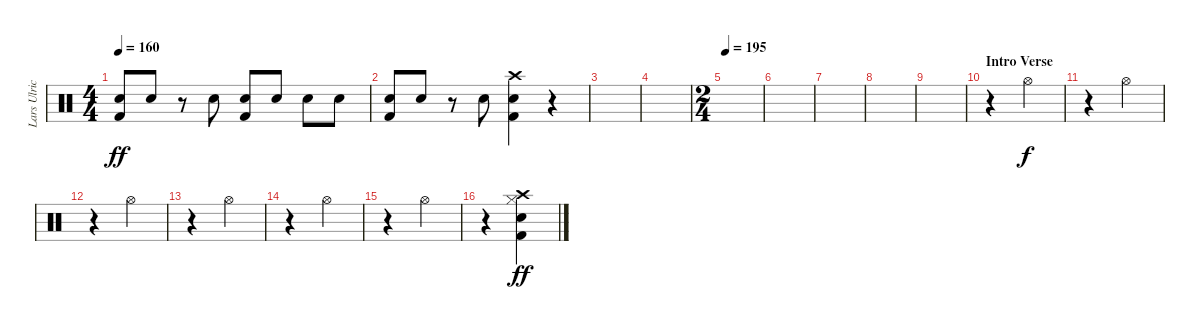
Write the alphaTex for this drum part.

\track ("Lars Ulrich" "Lars Ulric") {instrument percussion}
\staff {score}
\articulation defaults
\ts (4 4)
\tempo 154
\tempo 160
\clef neutral
\ks c
("Kick (hit) 2" "Snare (hit) 2").8{dy ff} "Snare (hit) 2".8 r.8 "Snare (hit) 2".8 ("Kick (hit) 2" "Snare (hit) 2").8 "Snare (hit) 2".8 "Snare (hit) 2".8 "Snare (hit) 2".8 |
("Kick (hit) 2" "Snare (hit) 2").8 "Snare (hit) 2".8 r.8 "Snare (hit) 2".8 ("Kick (hit) 2" "Snare (hit) 2" "Crash high (hit)").4 r.4 |
|
|
\ts (2 4)
\tempo 195
|
|
|
|
|
\section ("" "Intro Verse")
r.4 "Hi-Hat (open)".4{dy f} |
r.4 "Hi-Hat (open)".4 |
r.4 "Hi-Hat (open)".4 |
r.4 "Hi-Hat (open)".4 |
r.4 "Hi-Hat (open)".4 |
r.4 "Hi-Hat (open)".4 |
r.4 ("Kick (hit) 2" "Snare (hit) 2" "Hi-Hat (closed)" "Crash high (hit)").4{dy ff}
